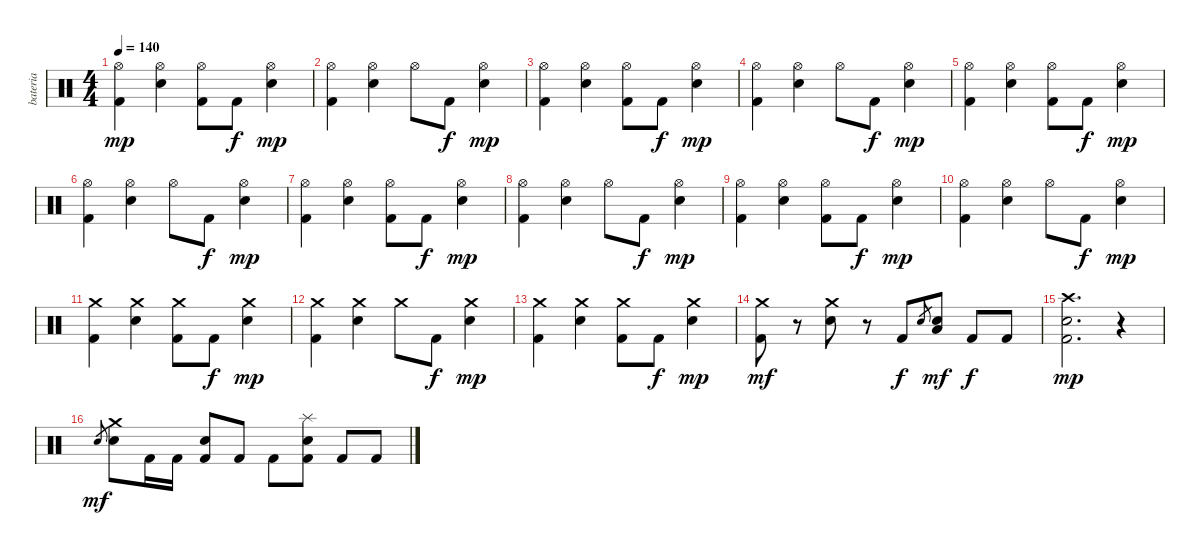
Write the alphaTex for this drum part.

\track ("bateria" "bateria") {instrument percussion}
\staff {score}
\articulation defaults
\ts (4 4)
\tempo 140
\clef neutral
\ks c
("Hi-Hat (open)" "Kick (hit) 2").4{dy mp} ("Hi-Hat (open)" "Snare (hit) 2").4 ("Hi-Hat (open)" "Kick (hit) 2").8 "Kick (hit) 2".8{dy f} ("Hi-Hat (open)" "Snare (hit) 2").4{dy mp} |
("Hi-Hat (open)" "Kick (hit) 2").4 ("Hi-Hat (open)" "Snare (hit) 2").4 "Hi-Hat (open)".8 "Kick (hit) 2".8{dy f} ("Hi-Hat (open)" "Snare (hit) 2").4{dy mp} |
("Hi-Hat (open)" "Kick (hit) 2").4 ("Hi-Hat (open)" "Snare (hit) 2").4 ("Hi-Hat (open)" "Kick (hit) 2").8 "Kick (hit) 2".8{dy f} ("Hi-Hat (open)" "Snare (hit) 2").4{dy mp} |
("Hi-Hat (open)" "Kick (hit) 2").4 ("Hi-Hat (open)" "Snare (hit) 2").4 "Hi-Hat (open)".8 "Kick (hit) 2".8{dy f} ("Hi-Hat (open)" "Snare (hit) 2").4{dy mp} |
("Hi-Hat (open)" "Kick (hit) 2").4 ("Hi-Hat (open)" "Snare (hit) 2").4 ("Hi-Hat (open)" "Kick (hit) 2").8 "Kick (hit) 2".8{dy f} ("Hi-Hat (open)" "Snare (hit) 2").4{dy mp} |
("Hi-Hat (open)" "Kick (hit) 2").4 ("Hi-Hat (open)" "Snare (hit) 2").4 "Hi-Hat (open)".8 "Kick (hit) 2".8{dy f} ("Hi-Hat (open)" "Snare (hit) 2").4{dy mp} |
("Hi-Hat (open)" "Kick (hit) 2").4 ("Hi-Hat (open)" "Snare (hit) 2").4 ("Hi-Hat (open)" "Kick (hit) 2").8 "Kick (hit) 2".8{dy f} ("Hi-Hat (open)" "Snare (hit) 2").4{dy mp} |
("Hi-Hat (open)" "Kick (hit) 2").4 ("Hi-Hat (open)" "Snare (hit) 2").4 "Hi-Hat (open)".8 "Kick (hit) 2".8{dy f} ("Hi-Hat (open)" "Snare (hit) 2").4{dy mp} |
("Hi-Hat (open)" "Kick (hit) 2").4 ("Hi-Hat (open)" "Snare (hit) 2").4 ("Hi-Hat (open)" "Kick (hit) 2").8 "Kick (hit) 2".8{dy f} ("Hi-Hat (open)" "Snare (hit) 2").4{dy mp} |
("Hi-Hat (open)" "Kick (hit) 2").4 ("Hi-Hat (open)" "Snare (hit) 2").4 "Hi-Hat (open)".8 "Kick (hit) 2".8{dy f} ("Hi-Hat (open)" "Snare (hit) 2").4{dy mp} |
("Crash medium (hit)" "Kick (hit) 2").4 ("Crash medium (hit)" "Snare (hit) 2").4 ("Crash medium (hit)" "Kick (hit) 2").8 "Kick (hit) 2".8{dy f} ("Crash medium (hit)" "Snare (hit) 2").4{dy mp} |
("Crash medium (hit)" "Kick (hit) 2").4 ("Crash medium (hit)" "Snare (hit) 2").4 "Crash medium (hit)".8 "Kick (hit) 2".8{dy f} ("Crash medium (hit)" "Snare (hit) 2").4{dy mp} |
("Crash medium (hit)" "Kick (hit) 2").4 ("Crash medium (hit)" "Snare (hit) 2").4 ("Crash medium (hit)" "Kick (hit) 2").8 "Kick (hit) 2".8{dy f} ("Crash medium (hit)" "Snare (hit) 2").4{dy mp} |
("Crash medium (hit)" "Kick (hit) 2").8{dy mf} r.8 ("Crash medium (hit)" "Snare (hit) 2").8 r.8 "Kick (hit) 2".8{dy f} "Snare (hit) 2".8{gr} ("Low Tom (hit)" "Snare (hit) 2").8{dy mf} "Kick (hit) 2".8{dy f} "Kick (hit) 2".8 |
("Crash high (hit)" "Snare (hit) 2" "Kick (hit) 2").2{d dy mp} r.4 |
"Snare (hit) 2".8{gr dy mf} ("Crash medium (hit)" "Snare (hit) 2").8 "Kick (hit) 2".16 "Kick (hit) 2".16 ("Electric Snare (hit)" "Kick (hit) 2").8 "Kick (hit) 2".8 "Kick (hit) 2".8 ("Splash (hit)" "Electric Snare (hit)" "Kick (hit) 2").8 "Kick (hit) 2".8 "Kick (hit) 2".8
